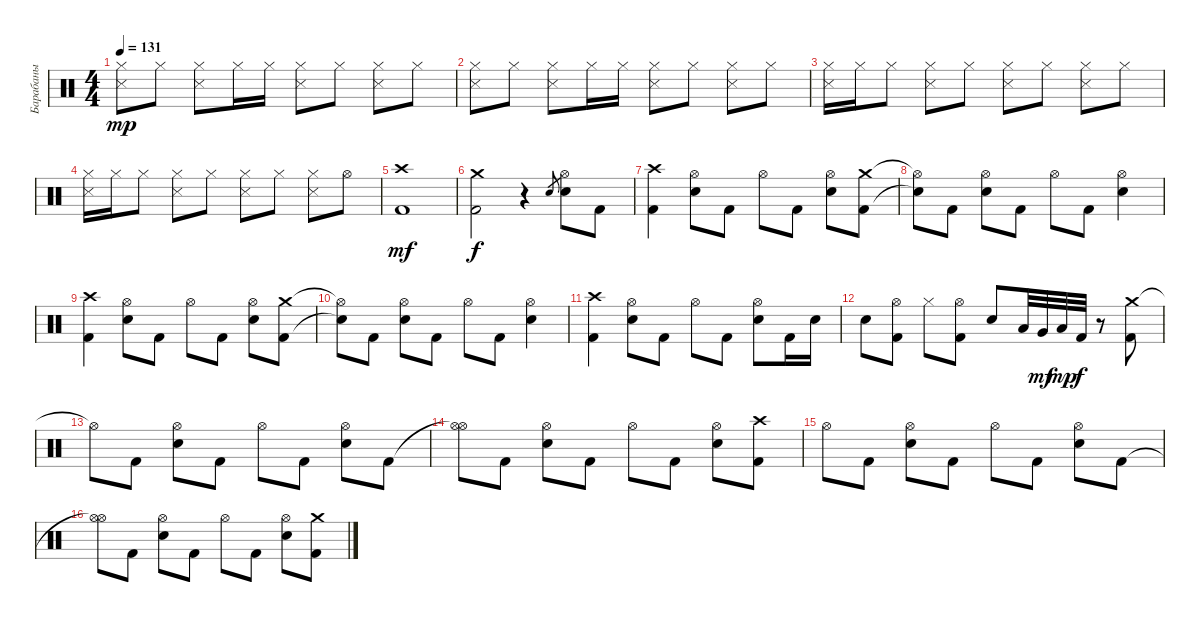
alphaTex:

\track ("Барабаны" "Барабаны") {instrument percussion}
\staff {score}
\articulation defaults
\ts (4 4)
\tempo 131
\clef neutral
\ks c
("Hi-Hat (closed)" "Snare (side stick) 3").8{dy mp} "Hi-Hat (closed)".8 ("Hi-Hat (closed)" "Snare (side stick) 3").8 "Hi-Hat (closed)".16 "Hi-Hat (closed)".16 ("Hi-Hat (closed)" "Snare (side stick) 3").8 "Hi-Hat (closed)".8 ("Hi-Hat (closed)" "Snare (side stick) 3").8 "Hi-Hat (closed)".8 |
("Hi-Hat (closed)" "Snare (side stick) 3").8 "Hi-Hat (closed)".8 ("Hi-Hat (closed)" "Snare (side stick) 3").8 "Hi-Hat (closed)".16 "Hi-Hat (closed)".16 ("Hi-Hat (closed)" "Snare (side stick) 3").8 "Hi-Hat (closed)".8 ("Hi-Hat (closed)" "Snare (side stick) 3").8 "Hi-Hat (closed)".8 |
("Hi-Hat (closed)" "Snare (side stick) 3").16 "Hi-Hat (closed)".16 "Hi-Hat (closed)".8 ("Hi-Hat (closed)" "Snare (side stick) 3").8 "Hi-Hat (closed)".8 ("Hi-Hat (closed)" "Snare (side stick) 3").8 "Hi-Hat (closed)".8 ("Hi-Hat (closed)" "Snare (side stick) 3").8 "Hi-Hat (closed)".8 |
("Hi-Hat (closed)" "Snare (side stick) 3").16 "Hi-Hat (closed)".16 "Hi-Hat (closed)".8 ("Hi-Hat (closed)" "Snare (side stick) 3").8 "Hi-Hat (closed)".8 ("Hi-Hat (closed)" "Snare (side stick) 3").8 "Hi-Hat (closed)".8 ("Hi-Hat (closed)" "Snare (side stick) 3").8 "Hi-Hat (open)".8 |
("Crash high (hit)" "Kick (hit) 2").1{dy mf} |
("Crash medium (hit)" "Kick (hit) 2").2{dy f} r.4 "Snare (hit) 2".8{gr} ("Hi-Hat (open)" "Snare (hit) 2").8 "Kick (hit) 2".8 |
("Crash high (hit)" "Kick (hit) 2").4 ("Hi-Hat (open)" "Snare (hit) 2").8 "Kick (hit) 2".8 "Hi-Hat (open)".8 "Kick (hit) 2".8 ("Hi-Hat (open)" "Snare (hit) 2").8 ("Crash medium (hit)" "Kick (hit) 2").8 |
("Hi-Hat (open)"{t} "Snare (hit)"{t}).8 "Kick (hit) 2".8 ("Snare (hit) 2" "Hi-Hat (open)").8 "Kick (hit) 2".8 "Hi-Hat (open)".8 "Kick (hit) 2".8 ("Hi-Hat (open)" "Snare (hit) 2").4 |
("Crash high (hit)" "Kick (hit) 2").4 ("Hi-Hat (open)" "Snare (hit) 2").8 "Kick (hit) 2".8 "Hi-Hat (open)".8 "Kick (hit) 2".8 ("Hi-Hat (open)" "Snare (hit) 2").8 ("Crash medium (hit)" "Kick (hit) 2").8 |
("Hi-Hat (open)"{t} "Snare (hit)"{t}).8 "Kick (hit) 2".8 ("Snare (hit) 2" "Hi-Hat (open)").8 "Kick (hit) 2".8 "Hi-Hat (open)".8 "Kick (hit) 2".8 ("Hi-Hat (open)" "Snare (hit) 2").4 |
("Crash high (hit)" "Kick (hit) 2").4 ("Hi-Hat (open)" "Snare (hit) 2").8 "Kick (hit) 2".8 "Hi-Hat (open)".8 "Kick (hit) 2".8 ("Hi-Hat (open)" "Snare (hit) 2").8 "Kick (hit) 2".16 "Snare (hit) 2".16 |
"Snare (hit) 2".8 ("Hi-Hat (open)" "Kick (hit) 2").8 "Hi-Hat (closed)".8 ("Hi-Hat (open)" "Kick (hit) 2").8 "Electric Snare (hit)".8 "Low Tom (hit)".32 "Very Low Tom (hit)".32{dy mf} "Low Floor Tom (hit)".32{dy mp} "Kick (hit) 2".32{dy f} r.8 ("Crash medium (hit)" "Kick (hit) 2").8 |
"Hi-Hat (open)"{t}.8 "Kick (hit) 2".8 ("Snare (hit) 2" "Hi-Hat (open)").8 "Kick (hit) 2".8 "Hi-Hat (open)".8 "Kick (hit) 2".8 ("Hi-Hat (open)" "Snare (hit) 2").8 "Kick (hit) 2".8 |
("Hi-Hat (open)"{t} "Hi-Hat (open)").8 "Kick (hit) 2".8 ("Snare (hit) 2" "Hi-Hat (open)").8 "Kick (hit) 2".8 "Hi-Hat (open)".8 "Kick (hit) 2".8 ("Hi-Hat (open)" "Snare (hit) 2").8 ("Crash high (hit)" "Kick (hit) 2").8 |
"Hi-Hat (open)".8 "Kick (hit) 2".8 ("Snare (hit) 2" "Hi-Hat (open)").8 "Kick (hit) 2".8 "Hi-Hat (open)".8 "Kick (hit) 2".8 ("Hi-Hat (open)" "Snare (hit) 2").8 "Kick (hit) 2".8 |
("Hi-Hat (open)"{t} "Hi-Hat (open)").8 "Kick (hit) 2".8 ("Snare (hit) 2" "Hi-Hat (open)").8 "Kick (hit) 2".8 "Hi-Hat (open)".8 "Kick (hit) 2".8 ("Hi-Hat (open)" "Snare (hit) 2").8 ("Crash medium (hit)" "Kick (hit) 2").8
